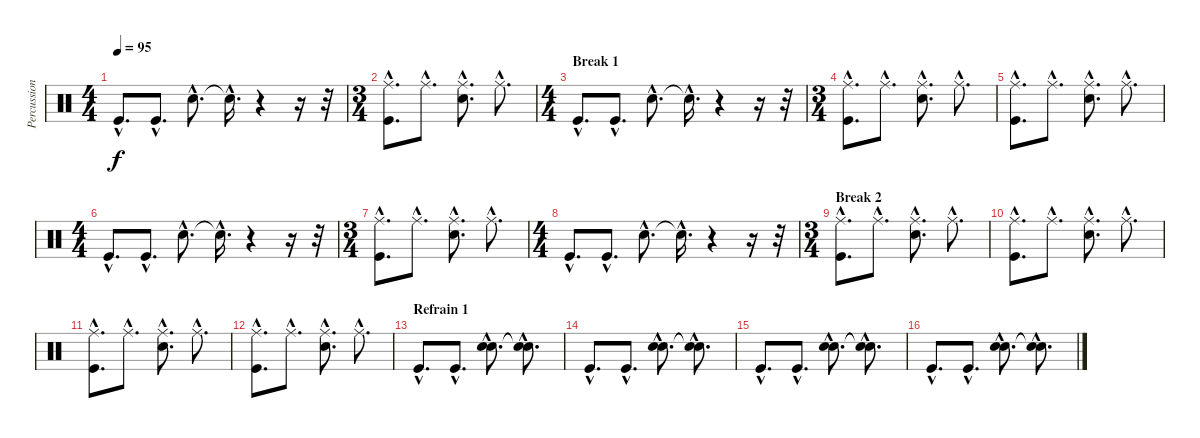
\track ("Percussions " "Percussion") {instrument percussion}
\staff {score}
\articulation defaults
\ts (4 4)
\tempo 95
\clef neutral
\ks c "Kick (hit)"{hac}.8{d dy f} "Kick (hit)"{hac}.8{d} "Electric Snare (hit)"{hac}.8{d} "Snare (hit)"{hac t}.16{d}
r.4 r.16 r.32 |
\ts (3 4)
("Ride (middle)"{hac} "Kick (hit)"{hac}).8{d} "Ride (middle)"{hac}.8{d} ("Ride (middle)"{hac} "Electric Snare (hit)"{hac}).8{d} "Ride (middle)"{hac}.8{d} |
\ts (4 4)
\section ("" "Break 1")
"Kick (hit)"{hac}.8{d} "Kick (hit)"{hac}.8{d} "Electric Snare (hit)"{hac}.8{d} "Snare (hit)"{hac t}.16{d} r.4 r.16 r.32 |
\ts (3 4)
("Ride (middle)"{hac} "Kick (hit)"{hac}).8{d} "Ride (middle)"{hac}.8{d} ("Ride (middle)"{hac} "Electric Snare (hit)"{hac}).8{d} "Ride (middle)"{hac}.8{d} |
("Ride (middle)"{hac} "Kick (hit)"{hac}).8{d} "Ride (middle)"{hac}.8{d} ("Ride (middle)"{hac} "Electric Snare (hit)"{hac}).8{d} "Ride (middle)"{hac}.8{d} |
\ts (4 4)
"Kick (hit)"{hac}.8{d} "Kick (hit)"{hac}.8{d} "Electric Snare (hit)"{hac}.8{d} "Snare (hit)"{hac t}.16{d} r.4 r.16 r.32 |
\ts (3 4)
("Ride (middle)"{hac} "Kick (hit)"{hac}).8{d} "Ride (middle)"{hac}.8{d} ("Ride (middle)"{hac} "Electric Snare (hit)"{hac}).8{d} "Ride (middle)"{hac}.8{d} |
\ts (4 4)
"Kick (hit)"{hac}.8{d} "Kick (hit)"{hac}.8{d} "Electric Snare (hit)"{hac}.8{d} "Snare (hit)"{hac t}.16{d} r.4 r.16 r.32 |
\ts (3 4)
\section ("" "Break 2")
("Ride (middle)"{hac} "Kick (hit)"{hac}).8{d} "Ride (middle)"{hac}.8{d} ("Ride (middle)"{hac} "Electric Snare (hit)"{hac}).8{d} "Ride (middle)"{hac}.8{d} |
("Ride (middle)"{hac} "Kick (hit)"{hac}).8{d} "Ride (middle)"{hac}.8{d} ("Ride (middle)"{hac} "Electric Snare (hit)"{hac}).8{d} "Ride (middle)"{hac}.8{d} |
("Ride (middle)"{hac} "Kick (hit)"{hac}).8{d} "Ride (middle)"{hac}.8{d} ("Ride (middle)"{hac} "Electric Snare (hit)"{hac}).8{d} "Ride (middle)"{hac}.8{d} |
("Ride (middle)"{hac} "Kick (hit)"{hac}).8{d} "Ride (middle)"{hac}.8{d} ("Ride (middle)"{hac} "Electric Snare (hit)"{hac}).8{d} "Ride (middle)"{hac}.8{d} |
\section ("" "Refrain 1")
"Kick (hit)"{hac}.8{d volume 16} "Kick (hit)"{hac}.8{d} ("Electric Snare (hit)"{hac} "Hand Clap (hit)"{hac}).8{d} ("Snare (hit)"{hac t} "Snare (hit)"{hac t}).8{d} |
"Kick (hit)"{hac}.8{d volume 14} "Kick (hit)"{hac}.8{d} ("Electric Snare (hit)"{hac} "Hand Clap (hit)"{hac}).8{d} ("Snare (hit)"{hac t} "Snare (hit)"{hac t}).8{d} |
"Kick (hit)"{hac}.8{d volume 16} "Kick (hit)"{hac}.8{d} ("Electric Snare (hit)"{hac} "Hand Clap (hit)"{hac}).8{d} ("Snare (hit)"{hac t} "Snare (hit)"{hac t}).8{d} |
"Kick (hit)"{hac}.8{d volume 14} "Kick (hit)"{hac}.8{d} ("Electric Snare (hit)"{hac} "Hand Clap (hit)"{hac}).8{d} ("Snare (hit)"{hac t} "Snare (hit)"{hac t}).8{d}
